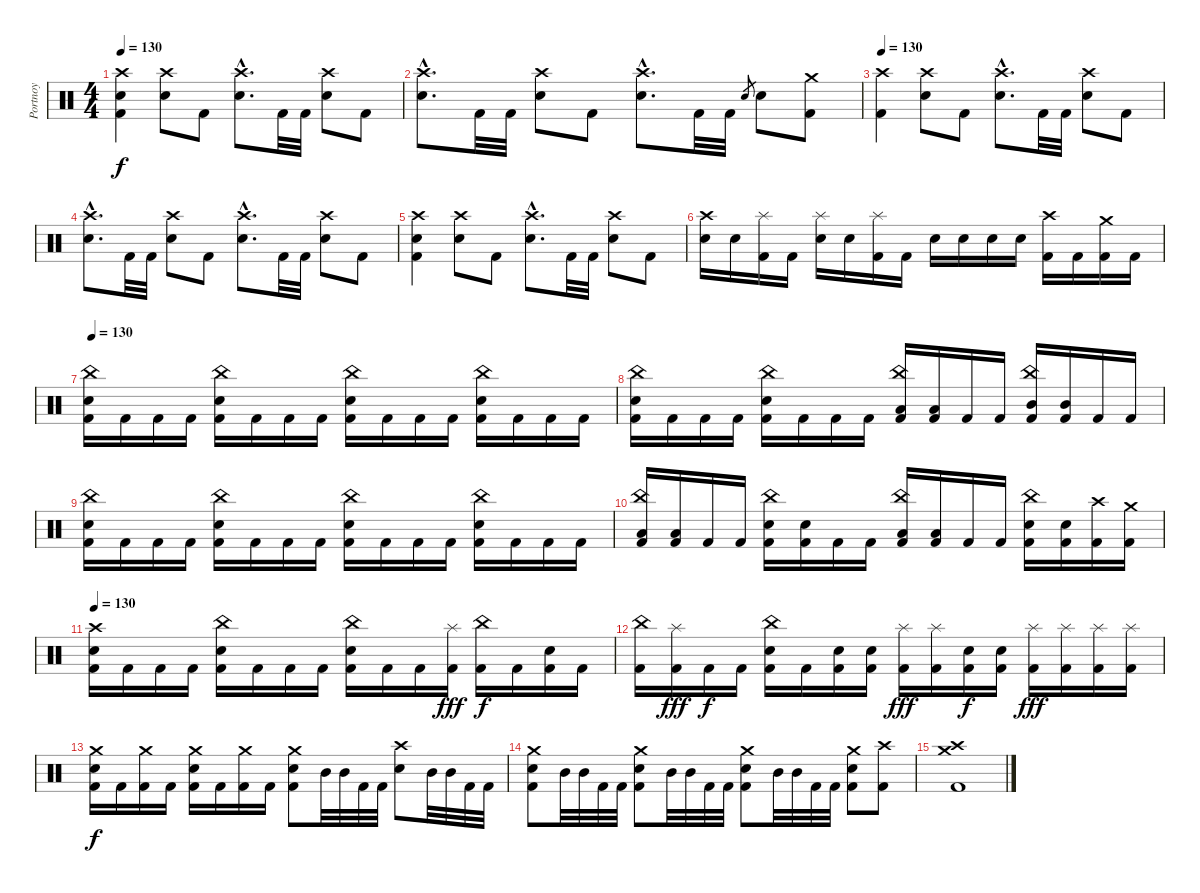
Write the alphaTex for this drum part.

\track ("Portnoy" "Portnoy") {instrument percussion}
\staff {score}
\articulation defaults
\ts (4 4)
\tempo 130
\clef neutral
\ks c
("Crash high (hit)" "Electric Snare (hit)" "Kick (hit) 2").4{dy f} ("Crash high (hit)" "Electric Snare (hit)").8 "Kick (hit) 2".8 ("Crash high (hit)"{hac} "Electric Snare (hit)"{hac}).8{d} "Kick (hit) 2".32 "Kick (hit) 2".32 ("Crash high (hit)" "Electric Snare (hit)").8 "Kick (hit) 2".8 |
("Crash high (hit)"{hac} "Electric Snare (hit)"{hac}).8{d} "Kick (hit) 2".32 "Kick (hit) 2".32 ("Crash high (hit)" "Electric Snare (hit)").8 "Kick (hit) 2".8 ("Crash high (hit)"{hac} "Electric Snare (hit)"{hac}).8{d} "Kick (hit) 2".32 "Kick (hit) 2".32 "Electric Snare (hit)".8{gr} "Electric Snare (hit)".8 ("Crash medium (hit)" "Kick (hit) 2").8 |
\tempo 130
("Crash high (hit)" "Kick (hit) 2").4 ("Crash high (hit)" "Electric Snare (hit)").8 "Kick (hit) 2".8 ("Crash high (hit)"{hac} "Electric Snare (hit)"{hac}).8{d} "Kick (hit) 2".32 "Kick (hit) 2".32 ("Crash high (hit)" "Electric Snare (hit)").8 "Kick (hit) 2".8 |
("Crash high (hit)"{hac} "Electric Snare (hit)"{hac}).8{d} "Kick (hit) 2".32 "Kick (hit) 2".32 ("Crash high (hit)" "Electric Snare (hit)").8 "Kick (hit) 2".8 ("Crash high (hit)"{hac} "Electric Snare (hit)"{hac}).8{d} "Kick (hit) 2".32 "Kick (hit) 2".32 ("Crash high (hit)" "Electric Snare (hit)").8 "Kick (hit) 2".8 |
("Crash high (hit)" "Electric Snare (hit)" "Kick (hit) 2").4 ("Crash high (hit)" "Electric Snare (hit)").8 "Kick (hit) 2".8 ("Crash high (hit)"{hac} "Electric Snare (hit)"{hac}).8{d} "Kick (hit) 2".32 "Kick (hit) 2".32 ("Crash high (hit)" "Electric Snare (hit)").8 "Kick (hit) 2".8 |
("Crash high (hit)" "Electric Snare (hit)").16 "Electric Snare (hit)".16 ("Splash (hit)" "Kick (hit) 2").16 "Kick (hit) 2".16 ("Splash (hit)" "Electric Snare (hit)").16 "Electric Snare (hit)".16 ("Splash (hit)" "Kick (hit) 2").16 "Kick (hit) 2".16 "Electric Snare (hit)".16 "Electric Snare (hit)".16 "Electric Snare (hit)".16 "Electric Snare (hit)".16 ("Crash high (hit)" "Kick (hit) 2").16 "Kick (hit) 2".16 ("Crash medium (hit)" "Kick (hit) 2").16 "Kick (hit) 2".16 |
\tempo 130
("China (hit)" "Electric Snare (hit)" "Kick (hit) 2").16 "Kick (hit) 2".16 "Kick (hit) 2".16 "Kick (hit) 2".16 ("China (hit)" "Electric Snare (hit)" "Kick (hit) 2").16 "Kick (hit) 2".16 "Kick (hit) 2".16 "Kick (hit) 2".16 ("China (hit)" "Electric Snare (hit)" "Kick (hit) 2").16 "Kick (hit) 2".16 "Kick (hit) 2".16 "Kick (hit) 2".16 ("China (hit)" "Electric Snare (hit)" "Kick (hit) 2").16 "Kick (hit) 2".16 "Kick (hit) 2".16 "Kick (hit) 2".16 |
("China (hit)" "Electric Snare (hit)" "Kick (hit) 2").16 "Kick (hit) 2".16 "Kick (hit) 2".16 "Kick (hit) 2".16 ("China (hit)" "Electric Snare (hit)" "Kick (hit) 2").16 "Kick (hit) 2".16 "Kick (hit) 2".16 "Kick (hit) 2".16 ("China (hit)" "Low Tom (hit)" "Kick (hit) 2").16 ("Low Tom (hit)" "Kick (hit) 2").16 "Kick (hit) 2".16 "Kick (hit) 2".16 ("China (hit)" "Mid Tom (hit)" "Kick (hit) 2").16 ("Mid Tom (hit)" "Kick (hit) 2").16 "Kick (hit) 2".16 "Kick (hit) 2".16 |
("China (hit)" "Electric Snare (hit)" "Kick (hit) 2").16 "Kick (hit) 2".16 "Kick (hit) 2".16 "Kick (hit) 2".16 ("China (hit)" "Electric Snare (hit)" "Kick (hit) 2").16 "Kick (hit) 2".16 "Kick (hit) 2".16 "Kick (hit) 2".16 ("China (hit)" "Electric Snare (hit)" "Kick (hit) 2").16 "Kick (hit) 2".16 "Kick (hit) 2".16 "Kick (hit) 2".16 ("China (hit)" "Electric Snare (hit)" "Kick (hit) 2").16 "Kick (hit) 2".16 "Kick (hit) 2".16 "Kick (hit) 2".16 |
("China (hit)" "Low Floor Tom (hit)" "Kick (hit) 2").16 ("Low Floor Tom (hit)" "Kick (hit) 2").16 "Kick (hit) 2".16 "Kick (hit) 2".16 ("China (hit)" "Electric Snare (hit)" "Kick (hit) 2").16 ("Electric Snare (hit)" "Kick (hit) 2").16 "Kick (hit) 2".16 "Kick (hit) 2".16 ("China (hit)" "Low Tom (hit)" "Kick (hit) 2").16 ("Low Tom (hit)" "Kick (hit) 2").16 "Kick (hit) 2".16 "Kick (hit) 2".16 ("China (hit)" "Electric Snare (hit)" "Kick (hit) 2").16 ("Electric Snare (hit)" "Kick (hit) 2").16 ("Crash high (hit)" "Kick (hit) 2").16 ("Crash medium (hit)" "Kick (hit) 2").16 |
\tempo 130
("Crash high (hit)" "Electric Snare (hit)" "Kick (hit) 2").16 "Kick (hit) 2".16 "Kick (hit) 2".16 "Kick (hit) 2".16 ("China (hit)" "Electric Snare (hit)" "Kick (hit) 2").16 "Kick (hit) 2".16 "Kick (hit) 2".16 "Kick (hit) 2".16 ("China (hit)" "Electric Snare (hit)" "Kick (hit) 2").16 "Kick (hit) 2".16 "Kick (hit) 2".16 ("Splash (hit)" "Kick (hit) 2").16{dy fff} ("China (hit)" "Kick (hit) 2").16{dy f} "Kick (hit) 2".16 ("Electric Snare (hit)" "Kick (hit) 2").16 "Kick (hit) 2".16 |
("China (hit)" "Kick (hit) 2").16 ("Splash (hit)" "Kick (hit) 2").16{dy fff} "Kick (hit) 2".16{dy f} "Kick (hit) 2".16 ("China (hit)" "Electric Snare (hit)" "Kick (hit) 2").16 "Kick (hit) 2".16 ("Electric Snare (hit)" "Kick (hit) 2").16 ("Electric Snare (hit)" "Kick (hit) 2").16 ("Splash (hit)" "Kick (hit) 2").16{dy fff} ("Splash (hit)" "Kick (hit) 2").16 ("Electric Snare (hit)" "Kick (hit) 2").16{dy f} ("Electric Snare (hit)" "Kick (hit) 2").16 ("Splash (hit)" "Kick (hit) 2").16{dy fff} ("Splash (hit)" "Kick (hit) 2").16 ("Splash (hit)" "Kick (hit) 2").16 ("Splash (hit)" "Kick (hit) 2").16 |
("Crash medium (hit)" "Electric Snare (hit)" "Kick (hit) 2").16{dy f} "Kick (hit) 2".16 ("Crash medium (hit)" "Kick (hit) 2").16 "Kick (hit) 2".16 ("Crash medium (hit)" "Electric Snare (hit)" "Kick (hit) 2").16 "Kick (hit) 2".16 ("Crash medium (hit)" "Kick (hit) 2").16 "Kick (hit) 2".16 ("Crash medium (hit)" "Electric Snare (hit)" "Kick (hit) 2").8 "Mid Tom (hit)".32 "Mid Tom (hit)".32 "Kick (hit) 2".32 "Kick (hit) 2".32 ("Crash high (hit)" "Electric Snare (hit)").8 "Mid Tom (hit)".32 "Mid Tom (hit)".32 "Kick (hit) 2".32 "Kick (hit) 2".32 |
("Crash medium (hit)" "Electric Snare (hit)" "Kick (hit) 2").8 "Mid Tom (hit)".32 "Mid Tom (hit)".32 "Kick (hit) 2".32 "Kick (hit) 2".32 ("Crash medium (hit)" "Electric Snare (hit)" "Kick (hit) 2").8 "Mid Tom (hit)".32 "Mid Tom (hit)".32 "Kick (hit) 2".32 "Kick (hit) 2".32 ("Crash medium (hit)" "Electric Snare (hit)" "Kick (hit) 2").8 "Mid Tom (hit)".32 "Mid Tom (hit)".32 "Kick (hit) 2".32 "Kick (hit) 2".32 ("Crash medium (hit)" "Electric Snare (hit)" "Kick (hit) 2").8 ("Crash high (hit)" "Kick (hit) 2").8 |
("Crash medium (hit)" "Crash high (hit)" "Kick (hit) 2").1
